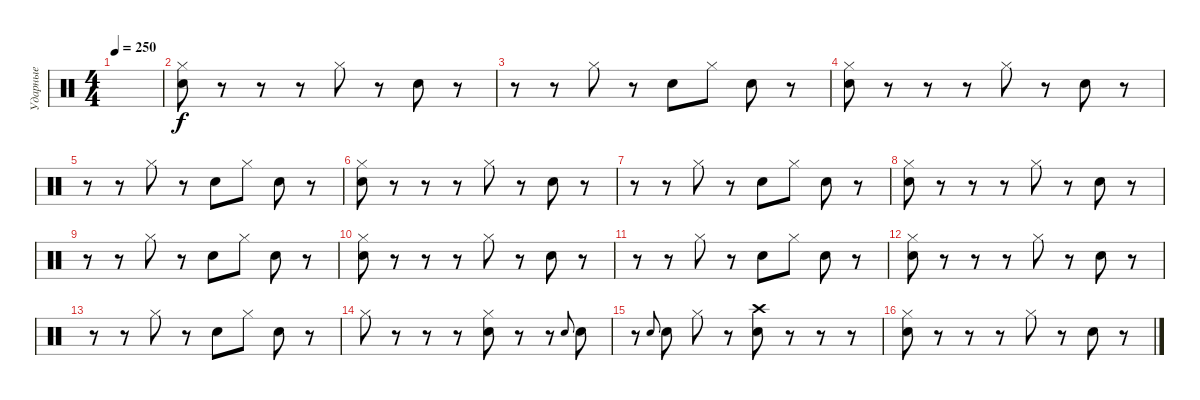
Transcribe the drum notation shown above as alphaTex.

\track ("Ударные" "Ударные") {instrument percussion}
\staff {score}
\articulation defaults
\ts (4 4)
\tempo 250
\clef neutral
\ks c
|
("Hi-Hat (closed)" "Snare (hit) 2").8{volume 2} r.8{volume 13} r.8 r.8 "Hi-Hat (closed)".8 r.8 "Snare (hit) 2".8 r.8 |
r.8 r.8 "Hi-Hat (closed)".8 r.8 "Snare (hit) 2".8 "Hi-Hat (closed)".8 "Snare (hit) 2".8 r.8 |
("Hi-Hat (closed)" "Snare (hit) 2").8 r.8 r.8 r.8 "Hi-Hat (closed)".8 r.8 "Snare (hit) 2".8 r.8 |
r.8 r.8 "Hi-Hat (closed)".8 r.8 "Snare (hit) 2".8 "Hi-Hat (closed)".8 "Snare (hit) 2".8 r.8 |
("Hi-Hat (closed)" "Snare (hit) 2").8 r.8 r.8 r.8 "Hi-Hat (closed)".8 r.8 "Snare (hit) 2".8 r.8 |
r.8 r.8 "Hi-Hat (closed)".8 r.8 "Snare (hit) 2".8 "Hi-Hat (closed)".8 "Snare (hit) 2".8 r.8 |
("Hi-Hat (closed)" "Snare (hit) 2").8 r.8 r.8 r.8 "Hi-Hat (closed)".8 r.8 "Snare (hit) 2".8 r.8 |
r.8 r.8 "Hi-Hat (closed)".8 r.8 "Snare (hit) 2".8 "Hi-Hat (closed)".8 "Snare (hit) 2".8 r.8 |
("Hi-Hat (closed)" "Snare (hit) 2").8 r.8 r.8 r.8 "Hi-Hat (closed)".8 r.8 "Snare (hit) 2".8 r.8 |
r.8 r.8 "Hi-Hat (closed)".8 r.8 "Snare (hit) 2".8 "Hi-Hat (closed)".8 "Snare (hit) 2".8 r.8 |
("Hi-Hat (closed)" "Snare (hit) 2").8 r.8 r.8 r.8 "Hi-Hat (closed)".8 r.8 "Snare (hit) 2".8 r.8 |
r.8 r.8 "Hi-Hat (closed)".8 r.8 "Snare (hit) 2".8 "Hi-Hat (closed)".8 "Snare (hit) 2".8 r.8 |
"Hi-Hat (closed)".8 r.8 r.8 r.8 ("Hi-Hat (closed)" "Snare (hit) 2").8 r.8 r.8 "Snare (hit) 2".8{gr onbeat} "Snare (hit) 2".8 |
r.8 "Snare (hit) 2".8{gr onbeat} "Snare (hit) 2".8 "Hi-Hat (closed)".8 r.8 ("Crash high (hit)" "Snare (hit) 2").8 r.8 r.8 r.8 |
("Hi-Hat (closed)" "Snare (hit) 2").8 r.8 r.8 r.8 "Hi-Hat (closed)".8 r.8 "Snare (hit) 2".8 r.8
